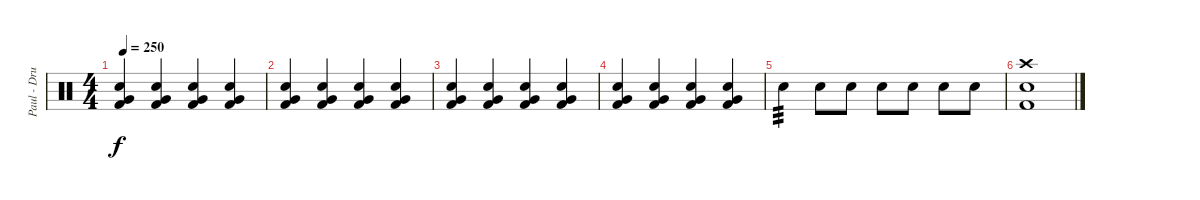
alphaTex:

\track ("Paul - Drums" "Paul - Dru") {instrument percussion}
\staff {score}
\articulation defaults
\ts (4 4)
\tempo 250
\clef neutral
\ks c
("Very Low Tom (hit)" "Electric Snare (hit)" "Kick (hit) 2").4{dy f} ("Very Low Tom (hit)" "Electric Snare (hit)" "Kick (hit) 2").4 ("Very Low Tom (hit)" "Electric Snare (hit)" "Kick (hit) 2").4 ("Very Low Tom (hit)" "Electric Snare (hit)" "Kick (hit) 2").4 |
("Very Low Tom (hit)" "Electric Snare (hit)" "Kick (hit) 2").4 ("Very Low Tom (hit)" "Electric Snare (hit)" "Kick (hit) 2").4 ("Very Low Tom (hit)" "Electric Snare (hit)" "Kick (hit) 2").4 ("Very Low Tom (hit)" "Electric Snare (hit)" "Kick (hit) 2").4 |
("Very Low Tom (hit)" "Electric Snare (hit)" "Kick (hit) 2").4 ("Very Low Tom (hit)" "Electric Snare (hit)" "Kick (hit) 2").4 ("Very Low Tom (hit)" "Electric Snare (hit)" "Kick (hit) 2").4 ("Very Low Tom (hit)" "Electric Snare (hit)" "Kick (hit) 2").4 |
("Very Low Tom (hit)" "Electric Snare (hit)" "Kick (hit) 2").4 ("Very Low Tom (hit)" "Electric Snare (hit)" "Kick (hit) 2").4 ("Very Low Tom (hit)" "Electric Snare (hit)" "Kick (hit) 2").4 ("Very Low Tom (hit)" "Electric Snare (hit)" "Kick (hit) 2").4 |
"Electric Snare (hit)".4{tp 3} "Electric Snare (hit)".8 "Electric Snare (hit)".8 "Electric Snare (hit)".8 "Electric Snare (hit)".8 "Electric Snare (hit)".8 "Electric Snare (hit)".8 |
("Crash high (hit)" "Electric Snare (hit)" "Kick (hit) 2").1
